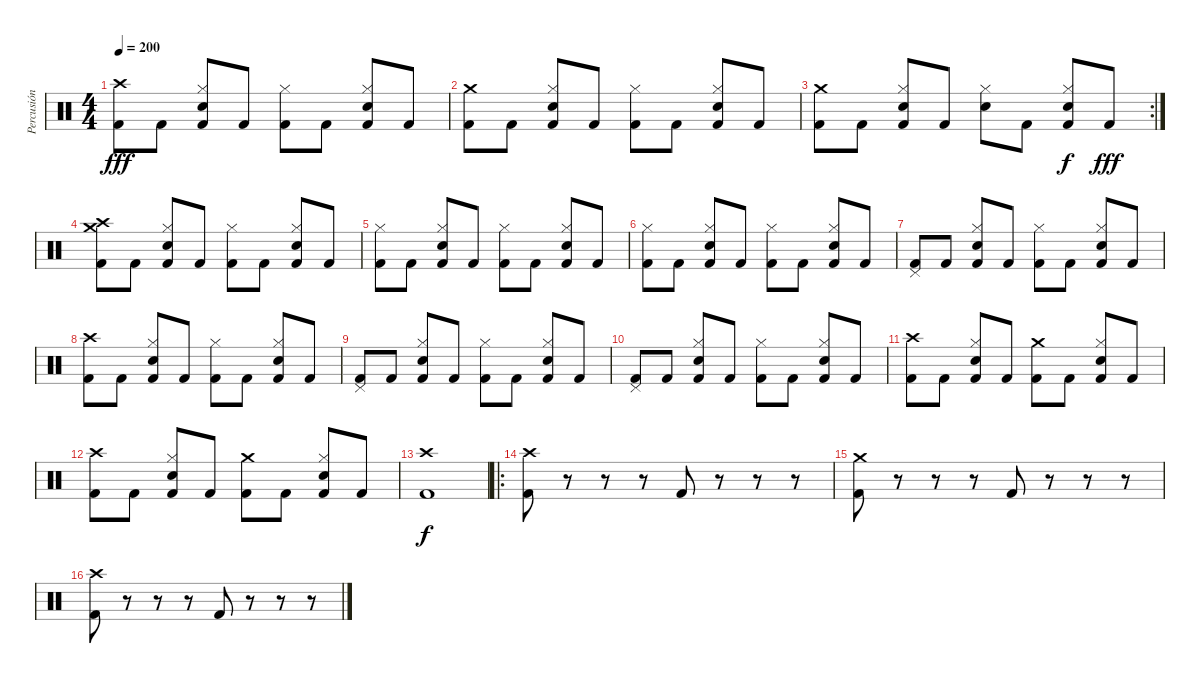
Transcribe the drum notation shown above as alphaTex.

\track ("Percusión" "Percusión") {instrument percussion}
\staff {score}
\articulation defaults
\ts (4 4)
\tempo 200
\clef neutral
\ks c
("Crash high (hit)" "Kick (hit) 2").8{dy fff} "Kick (hit) 2".8 ("Hi-Hat (closed)" "Electric Snare (hit)" "Kick (hit) 2").8 "Kick (hit) 2".8 ("Hi-Hat (closed)" "Kick (hit) 2").8 "Kick (hit) 2".8 ("Hi-Hat (closed)" "Electric Snare (hit)" "Kick (hit) 2").8 "Kick (hit) 2".8 |
("Crash medium (hit)" "Kick (hit) 2").8 "Kick (hit) 2".8 ("Hi-Hat (closed)" "Electric Snare (hit)" "Kick (hit) 2").8 "Kick (hit) 2".8 ("Hi-Hat (closed)" "Kick (hit) 2").8 "Kick (hit) 2".8 ("Hi-Hat (closed)" "Electric Snare (hit)" "Kick (hit) 2").8 "Kick (hit) 2".8 |
\rc 2
("Crash medium (hit)" "Kick (hit) 2").8 "Kick (hit) 2".8 ("Hi-Hat (closed)" "Electric Snare (hit)" "Kick (hit) 2").8 "Kick (hit) 2".8 ("Hi-Hat (closed)" "Electric Snare (hit)").8 "Kick (hit) 2".8 ("Hi-Hat (closed)" "Electric Snare (hit)" "Kick (hit) 2").8{dy f} "Kick (hit) 2".8{dy fff} |
("Crash high (hit)" "Crash medium (hit)" "Kick (hit) 2").8 "Kick (hit) 2".8 ("Hi-Hat (closed)" "Electric Snare (hit)" "Kick (hit) 2").8 "Kick (hit) 2".8 ("Hi-Hat (closed)" "Kick (hit) 2").8 "Kick (hit) 2".8 ("Hi-Hat (closed)" "Electric Snare (hit)" "Kick (hit) 2").8 "Kick (hit) 2".8 |
("Hi-Hat (closed)" "Kick (hit) 2").8 "Kick (hit) 2".8 ("Hi-Hat (closed)" "Electric Snare (hit)" "Kick (hit) 2").8 "Kick (hit) 2".8 ("Hi-Hat (closed)" "Kick (hit) 2").8 "Kick (hit) 2".8 ("Hi-Hat (closed)" "Electric Snare (hit)" "Kick (hit) 2").8 "Kick (hit) 2".8 |
("Hi-Hat (closed)" "Kick (hit) 2").8 "Kick (hit) 2".8 ("Hi-Hat (closed)" "Electric Snare (hit)" "Kick (hit) 2").8 "Kick (hit) 2".8 ("Hi-Hat (closed)" "Kick (hit) 2").8 "Kick (hit) 2".8 ("Hi-Hat (closed)" "Electric Snare (hit)" "Kick (hit) 2").8 "Kick (hit) 2".8 |
("Pedal Hi-Hat (hit)" "Kick (hit) 2").8 "Kick (hit) 2".8 ("Hi-Hat (closed)" "Electric Snare (hit)" "Kick (hit) 2").8 "Kick (hit) 2".8 ("Hi-Hat (closed)" "Kick (hit) 2").8 "Kick (hit) 2".8 ("Hi-Hat (closed)" "Electric Snare (hit)" "Kick (hit) 2").8 "Kick (hit) 2".8 |
("Crash high (hit)" "Kick (hit) 2").8 "Kick (hit) 2".8 ("Hi-Hat (closed)" "Electric Snare (hit)" "Kick (hit) 2").8 "Kick (hit) 2".8 ("Hi-Hat (closed)" "Kick (hit) 2").8 "Kick (hit) 2".8 ("Hi-Hat (closed)" "Electric Snare (hit)" "Kick (hit) 2").8 "Kick (hit) 2".8 |
("Pedal Hi-Hat (hit)" "Kick (hit) 2").8 "Kick (hit) 2".8 ("Hi-Hat (closed)" "Electric Snare (hit)" "Kick (hit) 2").8 "Kick (hit) 2".8 ("Hi-Hat (closed)" "Kick (hit) 2").8 "Kick (hit) 2".8 ("Hi-Hat (closed)" "Electric Snare (hit)" "Kick (hit) 2").8 "Kick (hit) 2".8 |
("Pedal Hi-Hat (hit)" "Kick (hit) 2").8 "Kick (hit) 2".8 ("Hi-Hat (closed)" "Electric Snare (hit)" "Kick (hit) 2").8 "Kick (hit) 2".8 ("Hi-Hat (closed)" "Kick (hit) 2").8 "Kick (hit) 2".8 ("Hi-Hat (closed)" "Electric Snare (hit)" "Kick (hit) 2").8 "Kick (hit) 2".8 |
("Crash high (hit)" "Kick (hit) 2").8 "Kick (hit) 2".8 ("Hi-Hat (closed)" "Electric Snare (hit)" "Kick (hit) 2").8 "Kick (hit) 2".8 ("Crash medium (hit)" "Kick (hit) 2").8 "Kick (hit) 2".8 ("Hi-Hat (closed)" "Electric Snare (hit)" "Kick (hit) 2").8 "Kick (hit) 2".8 |
("Crash high (hit)" "Kick (hit) 2").8 "Kick (hit) 2".8 ("Hi-Hat (closed)" "Electric Snare (hit)" "Kick (hit) 2").8 "Kick (hit) 2".8 ("Crash medium (hit)" "Kick (hit) 2").8 "Kick (hit) 2".8 ("Hi-Hat (closed)" "Electric Snare (hit)" "Kick (hit) 2").8 "Kick (hit) 2".8 |
("Crash high (hit)" "Kick (hit) 2").1{dy f} |
\ro
("Crash high (hit)" "Kick (hit) 2").8 r.8 r.8 r.8 "Kick (hit) 2".8 r.8 r.8 r.8 |
("Crash medium (hit)" "Kick (hit) 2").8 r.8 r.8 r.8 "Kick (hit) 2".8 r.8 r.8 r.8 |
("Crash high (hit)" "Kick (hit) 2").8 r.8 r.8 r.8 "Kick (hit) 2".8 r.8 r.8 r.8
